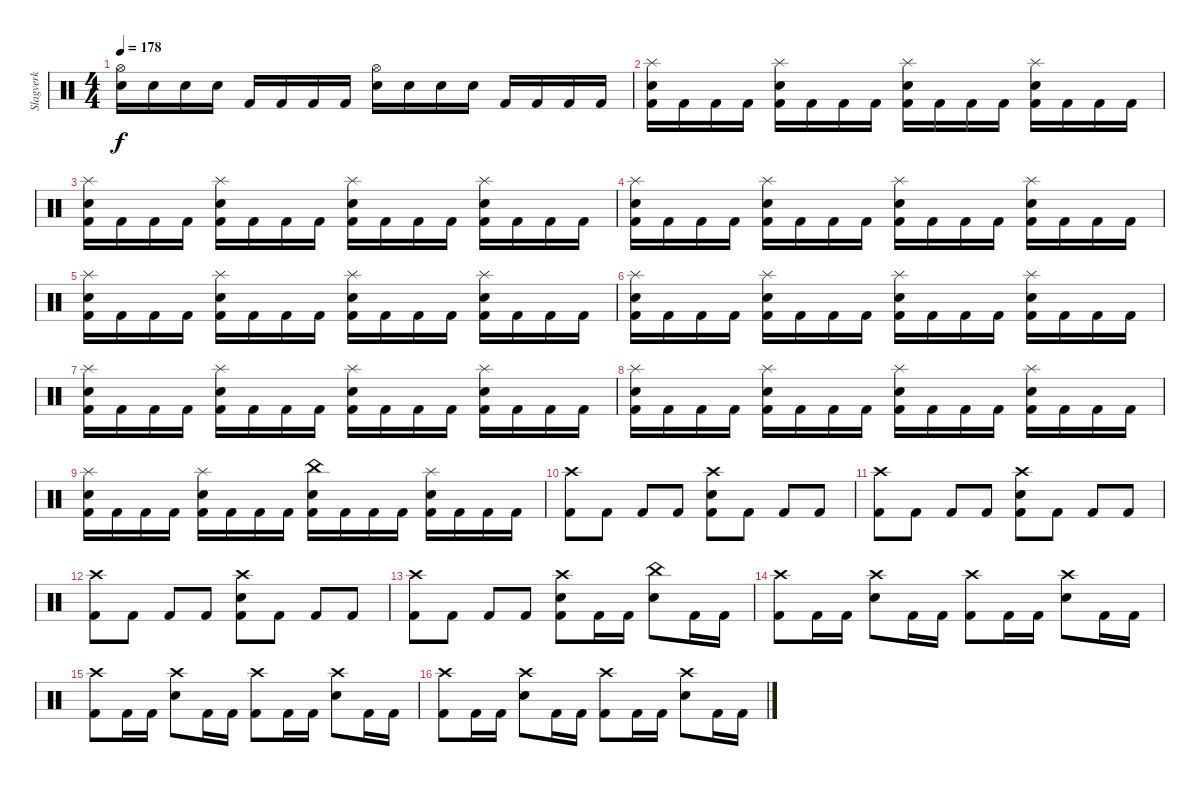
\track ("Slagverk" "Slagverk") {instrument percussion}
\staff {score}
\articulation defaults
\ts (4 4)
\tempo 178
\clef neutral
\ks c
("Hi-Hat (open)" "Electric Snare (hit)").16{dy f} "Electric Snare (hit)".16 "Electric Snare (hit)".16 "Electric Snare (hit)".16 "Kick (hit) 2".16 "Kick (hit) 2".16 "Kick (hit) 2".16 "Kick (hit) 2".16 ("Hi-Hat (open)" "Electric Snare (hit)").16 "Electric Snare (hit)".16 "Electric Snare (hit)".16 "Electric Snare (hit)".16 "Kick (hit) 2".16 "Kick (hit) 2".16 "Kick (hit) 2".16 "Kick (hit) 2".16 |
("Splash (hit)" "Electric Snare (hit)" "Kick (hit) 2").16 "Kick (hit) 2".16 "Kick (hit) 2".16 "Kick (hit) 2".16 ("Splash (hit)" "Electric Snare (hit)" "Kick (hit) 2").16 "Kick (hit) 2".16 "Kick (hit) 2".16 "Kick (hit) 2".16 ("Splash (hit)" "Electric Snare (hit)" "Kick (hit) 2").16 "Kick (hit) 2".16 "Kick (hit) 2".16 "Kick (hit) 2".16 ("Splash (hit)" "Electric Snare (hit)" "Kick (hit) 2").16 "Kick (hit) 2".16 "Kick (hit) 2".16 "Kick (hit) 2".16 |
("Splash (hit)" "Electric Snare (hit)" "Kick (hit) 2").16 "Kick (hit) 2".16 "Kick (hit) 2".16 "Kick (hit) 2".16 ("Splash (hit)" "Electric Snare (hit)" "Kick (hit) 2").16 "Kick (hit) 2".16 "Kick (hit) 2".16 "Kick (hit) 2".16 ("Splash (hit)" "Electric Snare (hit)" "Kick (hit) 2").16 "Kick (hit) 2".16 "Kick (hit) 2".16 "Kick (hit) 2".16 ("Splash (hit)" "Electric Snare (hit)" "Kick (hit) 2").16 "Kick (hit) 2".16 "Kick (hit) 2".16 "Kick (hit) 2".16 |
("Splash (hit)" "Electric Snare (hit)" "Kick (hit) 2").16 "Kick (hit) 2".16 "Kick (hit) 2".16 "Kick (hit) 2".16 ("Splash (hit)" "Electric Snare (hit)" "Kick (hit) 2").16 "Kick (hit) 2".16 "Kick (hit) 2".16 "Kick (hit) 2".16 ("Splash (hit)" "Electric Snare (hit)" "Kick (hit) 2").16 "Kick (hit) 2".16 "Kick (hit) 2".16 "Kick (hit) 2".16 ("Splash (hit)" "Electric Snare (hit)" "Kick (hit) 2").16 "Kick (hit) 2".16 "Kick (hit) 2".16 "Kick (hit) 2".16 |
("Splash (hit)" "Electric Snare (hit)" "Kick (hit) 2").16 "Kick (hit) 2".16 "Kick (hit) 2".16 "Kick (hit) 2".16 ("Splash (hit)" "Electric Snare (hit)" "Kick (hit) 2").16 "Kick (hit) 2".16 "Kick (hit) 2".16 "Kick (hit) 2".16 ("Splash (hit)" "Electric Snare (hit)" "Kick (hit) 2").16 "Kick (hit) 2".16 "Kick (hit) 2".16 "Kick (hit) 2".16 ("Splash (hit)" "Electric Snare (hit)" "Kick (hit) 2").16 "Kick (hit) 2".16 "Kick (hit) 2".16 "Kick (hit) 2".16 |
("Splash (hit)" "Electric Snare (hit)" "Kick (hit) 2").16 "Kick (hit) 2".16 "Kick (hit) 2".16 "Kick (hit) 2".16 ("Splash (hit)" "Electric Snare (hit)" "Kick (hit) 2").16 "Kick (hit) 2".16 "Kick (hit) 2".16 "Kick (hit) 2".16 ("Splash (hit)" "Electric Snare (hit)" "Kick (hit) 2").16 "Kick (hit) 2".16 "Kick (hit) 2".16 "Kick (hit) 2".16 ("Splash (hit)" "Electric Snare (hit)" "Kick (hit) 2").16 "Kick (hit) 2".16 "Kick (hit) 2".16 "Kick (hit) 2".16 |
("Splash (hit)" "Electric Snare (hit)" "Kick (hit) 2").16 "Kick (hit) 2".16 "Kick (hit) 2".16 "Kick (hit) 2".16 ("Splash (hit)" "Electric Snare (hit)" "Kick (hit) 2").16 "Kick (hit) 2".16 "Kick (hit) 2".16 "Kick (hit) 2".16 ("Splash (hit)" "Electric Snare (hit)" "Kick (hit) 2").16 "Kick (hit) 2".16 "Kick (hit) 2".16 "Kick (hit) 2".16 ("Splash (hit)" "Electric Snare (hit)" "Kick (hit) 2").16 "Kick (hit) 2".16 "Kick (hit) 2".16 "Kick (hit) 2".16 |
("Splash (hit)" "Electric Snare (hit)" "Kick (hit) 2").16 "Kick (hit) 2".16 "Kick (hit) 2".16 "Kick (hit) 2".16 ("Splash (hit)" "Electric Snare (hit)" "Kick (hit) 2").16 "Kick (hit) 2".16 "Kick (hit) 2".16 "Kick (hit) 2".16 ("Splash (hit)" "Electric Snare (hit)" "Kick (hit) 2").16 "Kick (hit) 2".16 "Kick (hit) 2".16 "Kick (hit) 2".16 ("Splash (hit)" "Electric Snare (hit)" "Kick (hit) 2").16 "Kick (hit) 2".16 "Kick (hit) 2".16 "Kick (hit) 2".16 |
("Splash (hit)" "Electric Snare (hit)" "Kick (hit) 2").16 "Kick (hit) 2".16 "Kick (hit) 2".16 "Kick (hit) 2".16 ("Splash (hit)" "Electric Snare (hit)" "Kick (hit) 2").16 "Kick (hit) 2".16 "Kick (hit) 2".16 "Kick (hit) 2".16 ("China (hit)" "Electric Snare (hit)" "Kick (hit) 2").16 "Kick (hit) 2".16 "Kick (hit) 2".16 "Kick (hit) 2".16 ("Splash (hit)" "Electric Snare (hit)" "Kick (hit) 2").16 "Kick (hit) 2".16 "Kick (hit) 2".16 "Kick (hit) 2".16 |
("Crash high (hit)" "Kick (hit) 2").8 "Kick (hit) 2".8 "Kick (hit) 2".8 "Kick (hit) 2".8 ("Crash high (hit)" "Electric Snare (hit)" "Kick (hit) 2").8 "Kick (hit) 2".8 "Kick (hit) 2".8 "Kick (hit) 2".8 |
("Crash high (hit)" "Kick (hit) 2").8 "Kick (hit) 2".8 "Kick (hit) 2".8 "Kick (hit) 2".8 ("Crash high (hit)" "Electric Snare (hit)" "Kick (hit) 2").8 "Kick (hit) 2".8 "Kick (hit) 2".8 "Kick (hit) 2".8 |
("Crash high (hit)" "Kick (hit) 2").8 "Kick (hit) 2".8 "Kick (hit) 2".8 "Kick (hit) 2".8 ("Crash high (hit)" "Electric Snare (hit)" "Kick (hit) 2").8 "Kick (hit) 2".8 "Kick (hit) 2".8 "Kick (hit) 2".8 |
("Crash high (hit)" "Kick (hit) 2").8 "Kick (hit) 2".8 "Kick (hit) 2".8 "Kick (hit) 2".8 ("Crash high (hit)" "Electric Snare (hit)" "Kick (hit) 2").8 "Kick (hit) 2".16 "Kick (hit) 2".16 ("China (hit)" "Electric Snare (hit)").8 "Kick (hit) 2".16 "Kick (hit) 2".16 |
("Crash high (hit)" "Kick (hit) 2").8 "Kick (hit) 2".16 "Kick (hit) 2".16 ("Crash high (hit)" "Electric Snare (hit)").8 "Kick (hit) 2".16 "Kick (hit) 2".16 ("Crash high (hit)" "Kick (hit) 2").8 "Kick (hit) 2".16 "Kick (hit) 2".16 ("Crash high (hit)" "Electric Snare (hit)").8 "Kick (hit) 2".16 "Kick (hit) 2".16 |
("Crash high (hit)" "Kick (hit) 2").8 "Kick (hit) 2".16 "Kick (hit) 2".16 ("Crash high (hit)" "Electric Snare (hit)").8 "Kick (hit) 2".16 "Kick (hit) 2".16 ("Crash high (hit)" "Kick (hit) 2").8 "Kick (hit) 2".16 "Kick (hit) 2".16 ("Crash high (hit)" "Electric Snare (hit)").8 "Kick (hit) 2".16 "Kick (hit) 2".16 |
("Crash high (hit)" "Kick (hit) 2").8 "Kick (hit) 2".16 "Kick (hit) 2".16 ("Crash high (hit)" "Electric Snare (hit)").8 "Kick (hit) 2".16 "Kick (hit) 2".16 ("Crash high (hit)" "Kick (hit) 2").8 "Kick (hit) 2".16 "Kick (hit) 2".16 ("Crash high (hit)" "Electric Snare (hit)").8 "Kick (hit) 2".16 "Kick (hit) 2".16
